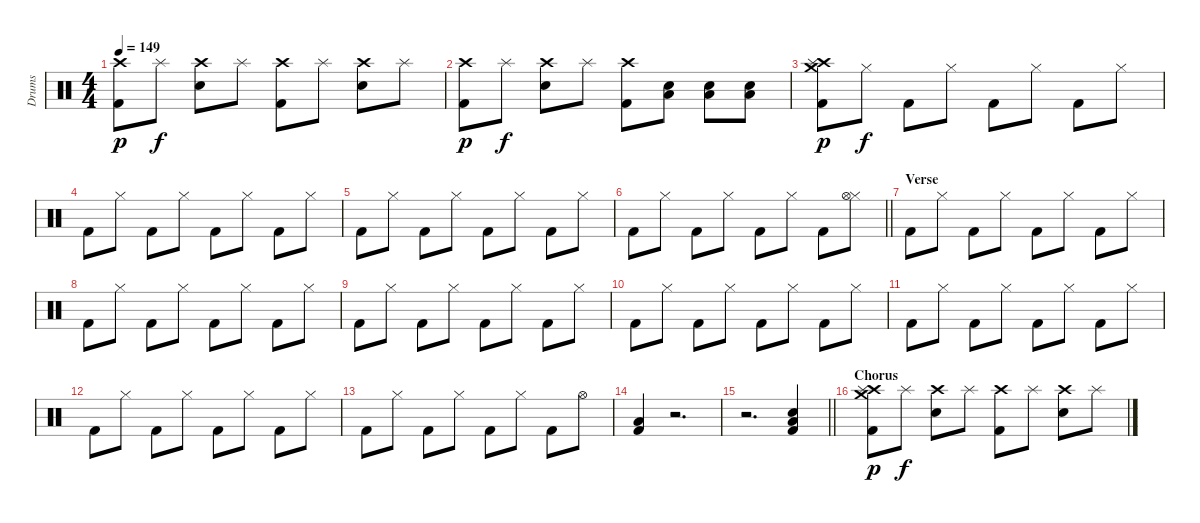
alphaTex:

\track ("Drums" "Drums") {instrument percussion}
\staff {score}
\articulation defaults
\ts (4 4)
\tempo 149
\clef neutral
\ks c
("Crash high (hit)" "Kick (hit) 2").8{dy p} "Splash (hit)".8{dy f} ("Crash high (hit)" "Snare (hit) 2").8 "Splash (hit)".8 ("Crash high (hit)" "Kick (hit) 2").8 "Splash (hit)".8 ("Crash high (hit)" "Snare (hit) 2").8 "Splash (hit)".8 |
("Crash high (hit)" "Kick (hit) 2").8{dy p} "Splash (hit)".8{dy f} ("Crash high (hit)" "Snare (hit) 2").8 "Splash (hit)".8 ("Crash high (hit)" "Kick (hit) 2").8 ("Low Floor Tom (hit)" "Snare (hit) 2").8 ("Low Floor Tom (hit)" "Snare (hit) 2").8 ("Low Floor Tom (hit)" "Snare (hit) 2").8 |
("Crash medium (hit)" "Crash high (hit)" "Splash (hit)" "Kick (hit) 2").8{dy p} "Hi-Hat (closed)".8{dy f} "Kick (hit) 2".8 "Hi-Hat (closed)".8 "Kick (hit) 2".8 "Hi-Hat (closed)".8 "Kick (hit) 2".8 "Hi-Hat (closed)".8 |
"Kick (hit) 2".8 "Hi-Hat (closed)".8 "Kick (hit) 2".8 "Hi-Hat (closed)".8 "Kick (hit) 2".8 "Hi-Hat (closed)".8 "Kick (hit) 2".8 "Hi-Hat (closed)".8 |
"Kick (hit) 2".8 "Hi-Hat (closed)".8 "Kick (hit) 2".8 "Hi-Hat (closed)".8 "Kick (hit) 2".8 "Hi-Hat (closed)".8 "Kick (hit) 2".8 "Hi-Hat (closed)".8 |
\barLineRight lightlight "Kick (hit) 2".8 "Hi-Hat (closed)".8 "Kick (hit) 2".8 "Hi-Hat (closed)".8 "Kick (hit) 2".8 "Hi-Hat (closed)".8 "Kick (hit) 2".8
("Hi-Hat (closed)" "Hi-Hat (open)").8 |
\section ("" "Verse")
"Kick (hit) 2".8 "Hi-Hat (closed)".8 "Kick (hit) 2".8 "Hi-Hat (closed)".8 "Kick (hit) 2".8 "Hi-Hat (closed)".8 "Kick (hit) 2".8 "Hi-Hat (closed)".8 |
"Kick (hit) 2".8 "Hi-Hat (closed)".8 "Kick (hit) 2".8 "Hi-Hat (closed)".8 "Kick (hit) 2".8 "Hi-Hat (closed)".8 "Kick (hit) 2".8 "Hi-Hat (closed)".8 |
"Kick (hit) 2".8 "Hi-Hat (closed)".8 "Kick (hit) 2".8 "Hi-Hat (closed)".8 "Kick (hit) 2".8 "Hi-Hat (closed)".8 "Kick (hit) 2".8 "Hi-Hat (closed)".8 |
"Kick (hit) 2".8 "Hi-Hat (closed)".8 "Kick (hit) 2".8 "Hi-Hat (closed)".8 "Kick (hit) 2".8 "Hi-Hat (closed)".8 "Kick (hit) 2".8 "Hi-Hat (closed)".8 |
"Kick (hit) 2".8 "Hi-Hat (closed)".8 "Kick (hit) 2".8 "Hi-Hat (closed)".8 "Kick (hit) 2".8 "Hi-Hat (closed)".8 "Kick (hit) 2".8 "Hi-Hat (closed)".8 |
"Kick (hit) 2".8 "Hi-Hat (closed)".8 "Kick (hit) 2".8 "Hi-Hat (closed)".8 "Kick (hit) 2".8 "Hi-Hat (closed)".8 "Kick (hit) 2".8 "Hi-Hat (closed)".8 |
"Kick (hit) 2".8 "Hi-Hat (closed)".8 "Kick (hit) 2".8 "Hi-Hat (closed)".8 "Kick (hit) 2".8 "Hi-Hat (closed)".8 "Kick (hit) 2".8 "Hi-Hat (open)".8 |
("Low Floor Tom (hit)" "Kick (hit) 2").4 r.2{d} |
\barLineRight lightlight
r.2{d} ("Snare (hit) 2" "Low Floor Tom (hit)" "Kick (hit) 2").4 |
\section ("" "Chorus")
("Crash medium (hit)" "Crash high (hit)" "Splash (hit)" "Kick (hit) 2").8{dy p} "Splash (hit)".8{dy f} ("Crash high (hit)" "Snare (hit) 2").8 "Splash (hit)".8 ("Crash high (hit)" "Kick (hit) 2").8 "Splash (hit)".8 ("Crash high (hit)" "Snare (hit) 2").8 "Splash (hit)".8
